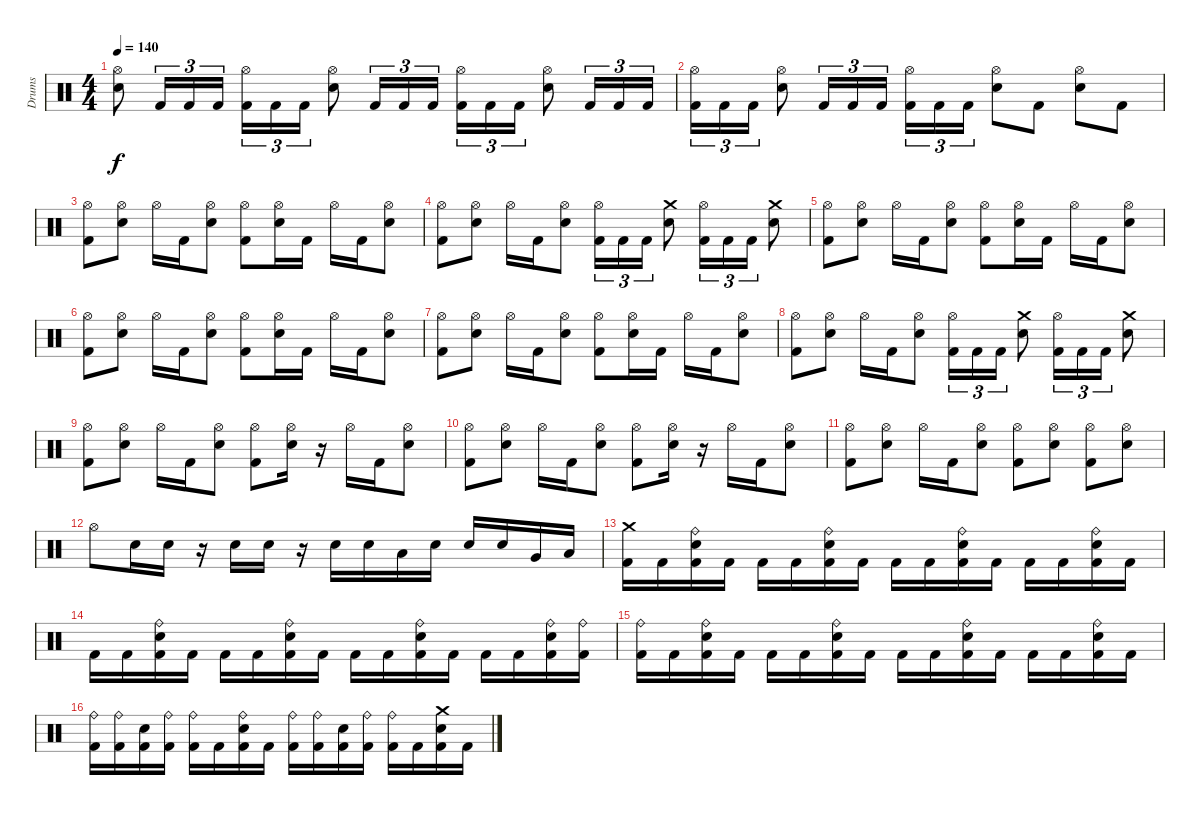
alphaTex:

\track ("Drums" "Drums") {instrument percussion}
\staff {score}
\articulation defaults
\ts (4 4)
\tempo 140
\clef neutral
\ks c
("Electric Snare (hit)" "Hi-Hat (open)").8{dy f} "Kick (hit) 2".16{tu (3 2)} "Kick (hit) 2".16{tu (3 2)} "Kick (hit) 2".16{tu (3 2)} ("Hi-Hat (open)" "Kick (hit) 2").16{tu (3 2)} "Kick (hit) 2".16{tu (3 2)} "Kick (hit) 2".16{tu (3 2)} ("Electric Snare (hit)" "Hi-Hat (open)").8 "Kick (hit) 2".16{tu (3 2)} "Kick (hit) 2".16{tu (3 2)} "Kick (hit) 2".16{tu (3 2)} ("Hi-Hat (open)" "Kick (hit) 2").16{tu (3 2)} "Kick (hit) 2".16{tu (3 2)} "Kick (hit) 2".16{tu (3 2)} ("Electric Snare (hit)" "Hi-Hat (open)").8 "Kick (hit) 2".16{tu (3 2)} "Kick (hit) 2".16{tu (3 2)} "Kick (hit) 2".16{tu (3 2)} |
("Hi-Hat (open)" "Kick (hit) 2").16{tu (3 2)} "Kick (hit) 2".16{tu (3 2)} "Kick (hit) 2".16{tu (3 2)} ("Electric Snare (hit)" "Hi-Hat (open)").8 "Kick (hit) 2".16{tu (3 2)} "Kick (hit) 2".16{tu (3 2)} "Kick (hit) 2".16{tu (3 2)} ("Hi-Hat (open)" "Kick (hit) 2").16{tu (3 2)} "Kick (hit) 2".16{tu (3 2)} "Kick (hit) 2".16{tu (3 2)} ("Electric Snare (hit)" "Hi-Hat (open)").8 "Kick (hit) 2".8 ("Electric Snare (hit)" "Hi-Hat (open)").8 "Kick (hit) 2".8 |
("Hi-Hat (open)" "Kick (hit) 2").8 ("Electric Snare (hit)" "Hi-Hat (open)").8 "Hi-Hat (open)".16 "Kick (hit) 2".16 ("Electric Snare (hit)" "Hi-Hat (open)").8 ("Hi-Hat (open)" "Kick (hit) 2").8 ("Electric Snare (hit)" "Hi-Hat (open)").16 "Kick (hit) 2".16 "Hi-Hat (open)".16 "Kick (hit) 2".16 ("Electric Snare (hit)" "Hi-Hat (open)").8 |
("Hi-Hat (open)" "Kick (hit) 2").8 ("Electric Snare (hit)" "Hi-Hat (open)").8 "Hi-Hat (open)".16 "Kick (hit) 2".16 ("Electric Snare (hit)" "Hi-Hat (open)").8 ("Hi-Hat (open)" "Kick (hit) 2").16{tu (3 2)} "Kick (hit) 2".16{tu (3 2)} "Kick (hit) 2".16{tu (3 2)} ("Crash medium (hit)" "Electric Snare (hit)").8 ("Hi-Hat (open)" "Kick (hit) 2").16{tu (3 2)} "Kick (hit) 2".16{tu (3 2)} "Kick (hit) 2".16{tu (3 2)} ("Crash medium (hit)" "Electric Snare (hit)").8 |
("Hi-Hat (open)" "Kick (hit) 2").8 ("Electric Snare (hit)" "Hi-Hat (open)").8 "Hi-Hat (open)".16 "Kick (hit) 2".16 ("Electric Snare (hit)" "Hi-Hat (open)").8 ("Hi-Hat (open)" "Kick (hit) 2").8 ("Electric Snare (hit)" "Hi-Hat (open)").16 "Kick (hit) 2".16 "Hi-Hat (open)".16 "Kick (hit) 2".16 ("Electric Snare (hit)" "Hi-Hat (open)").8 |
("Hi-Hat (open)" "Kick (hit) 2").8 ("Electric Snare (hit)" "Hi-Hat (open)").8 "Hi-Hat (open)".16 "Kick (hit) 2".16 ("Electric Snare (hit)" "Hi-Hat (open)").8 ("Hi-Hat (open)" "Kick (hit) 2").8 ("Electric Snare (hit)" "Hi-Hat (open)").16 "Kick (hit) 2".16 "Hi-Hat (open)".16 "Kick (hit) 2".16 ("Electric Snare (hit)" "Hi-Hat (open)").8 |
("Hi-Hat (open)" "Kick (hit) 2").8 ("Electric Snare (hit)" "Hi-Hat (open)").8 "Hi-Hat (open)".16 "Kick (hit) 2".16 ("Electric Snare (hit)" "Hi-Hat (open)").8 ("Hi-Hat (open)" "Kick (hit) 2").8 ("Electric Snare (hit)" "Hi-Hat (open)").16 "Kick (hit) 2".16 "Hi-Hat (open)".16 "Kick (hit) 2".16 ("Electric Snare (hit)" "Hi-Hat (open)").8 |
("Hi-Hat (open)" "Kick (hit) 2").8 ("Electric Snare (hit)" "Hi-Hat (open)").8 "Hi-Hat (open)".16 "Kick (hit) 2".16 ("Electric Snare (hit)" "Hi-Hat (open)").8 ("Hi-Hat (open)" "Kick (hit) 2").16{tu (3 2)} "Kick (hit) 2".16{tu (3 2)} "Kick (hit) 2".16{tu (3 2)} ("Crash medium (hit)" "Electric Snare (hit)").8 ("Hi-Hat (open)" "Kick (hit) 2").16{tu (3 2)} "Kick (hit) 2".16{tu (3 2)} "Kick (hit) 2".16{tu (3 2)} ("Crash medium (hit)" "Electric Snare (hit)").8 |
("Hi-Hat (open)" "Kick (hit) 2").8 ("Electric Snare (hit)" "Hi-Hat (open)").8 "Hi-Hat (open)".16 "Kick (hit) 2".16 ("Electric Snare (hit)" "Hi-Hat (open)").8 ("Hi-Hat (open)" "Kick (hit) 2").8 ("Electric Snare (hit)" "Hi-Hat (open)").16 r.16 "Hi-Hat (open)".16 "Kick (hit) 2".16 ("Electric Snare (hit)" "Hi-Hat (open)").8 |
("Hi-Hat (open)" "Kick (hit) 2").8 ("Electric Snare (hit)" "Hi-Hat (open)").8 "Hi-Hat (open)".16 "Kick (hit) 2".16 ("Electric Snare (hit)" "Hi-Hat (open)").8 ("Hi-Hat (open)" "Kick (hit) 2").8 ("Electric Snare (hit)" "Hi-Hat (open)").16 r.16 "Hi-Hat (open)".16 "Kick (hit) 2".16 ("Electric Snare (hit)" "Hi-Hat (open)").8 |
("Hi-Hat (open)" "Kick (hit) 2").8 ("Electric Snare (hit)" "Hi-Hat (open)").8 "Hi-Hat (open)".16 "Kick (hit) 2".16 ("Electric Snare (hit)" "Hi-Hat (open)").8 ("Hi-Hat (open)" "Kick (hit) 2").8 ("Electric Snare (hit)" "Hi-Hat (open)").8 ("Hi-Hat (open)" "Kick (hit) 2").8 ("Electric Snare (hit)" "Hi-Hat (open)").8 |
"Hi-Hat (open)".8 "Electric Snare (hit)".16 "Electric Snare (hit)".16 r.16 "Electric Snare (hit)".16 "Electric Snare (hit)".16 r.16 "Electric Snare (hit)".16 "Electric Snare (hit)".16 "Low Tom (hit)".16 "Electric Snare (hit)".16 "Electric Snare (hit)".16 "Electric Snare (hit)".16 "Very Low Tom (hit)".16 "Low Floor Tom (hit)".16 |
("Crash medium (hit)" "Kick (hit) 2").16 "Kick (hit) 2".16 ("Electric Snare (hit)" "Ride (bell)" "Kick (hit) 2").16 "Kick (hit) 2".16 "Kick (hit) 2".16 "Kick (hit) 2".16 ("Electric Snare (hit)" "Ride (bell)" "Kick (hit) 2").16 "Kick (hit) 2".16 "Kick (hit) 2".16 "Kick (hit) 2".16 ("Electric Snare (hit)" "Ride (bell)" "Kick (hit) 2").16 "Kick (hit) 2".16 "Kick (hit) 2".16 "Kick (hit) 2".16 ("Electric Snare (hit)" "Ride (bell)" "Kick (hit) 2").16 "Kick (hit) 2".16 |
"Kick (hit) 2".16 "Kick (hit) 2".16 ("Electric Snare (hit)" "Ride (bell)" "Kick (hit) 2").16 "Kick (hit) 2".16 "Kick (hit) 2".16 "Kick (hit) 2".16 ("Electric Snare (hit)" "Ride (bell)" "Kick (hit) 2").16 "Kick (hit) 2".16 "Kick (hit) 2".16 "Kick (hit) 2".16 ("Electric Snare (hit)" "Ride (bell)" "Kick (hit) 2").16 "Kick (hit) 2".16 "Kick (hit) 2".16 "Kick (hit) 2".16 ("Electric Snare (hit)" "Ride (bell)" "Kick (hit) 2").16 ("Ride (bell)" "Kick (hit) 2").16 |
("Ride (bell)" "Kick (hit) 2").16 "Kick (hit) 2".16 ("Electric Snare (hit)" "Ride (bell)" "Kick (hit) 2").16 "Kick (hit) 2".16 "Kick (hit) 2".16 "Kick (hit) 2".16 ("Electric Snare (hit)" "Ride (bell)" "Kick (hit) 2").16 "Kick (hit) 2".16 "Kick (hit) 2".16 "Kick (hit) 2".16 ("Electric Snare (hit)" "Ride (bell)" "Kick (hit) 2").16 "Kick (hit) 2".16 "Kick (hit) 2".16 "Kick (hit) 2".16 ("Electric Snare (hit)" "Ride (bell)" "Kick (hit) 2").16 "Kick (hit) 2".16 |
("Ride (bell)" "Kick (hit) 2").16 ("Ride (bell)" "Kick (hit) 2").16 ("Electric Snare (hit)" "Kick (hit) 2").16 ("Ride (bell)" "Kick (hit) 2").16 ("Ride (bell)" "Kick (hit) 2").16 "Kick (hit) 2".16 ("Electric Snare (hit)" "Ride (bell)" "Kick (hit) 2").16 "Kick (hit) 2".16 ("Ride (bell)" "Kick (hit) 2").16 ("Ride (bell)" "Kick (hit) 2").16 ("Electric Snare (hit)" "Kick (hit) 2").16 ("Ride (bell)" "Kick (hit) 2").16 ("Ride (bell)" "Kick (hit) 2").16 "Kick (hit) 2".16 ("Crash medium (hit)" "Electric Snare (hit)" "Kick (hit) 2").16 "Kick (hit) 2".16
